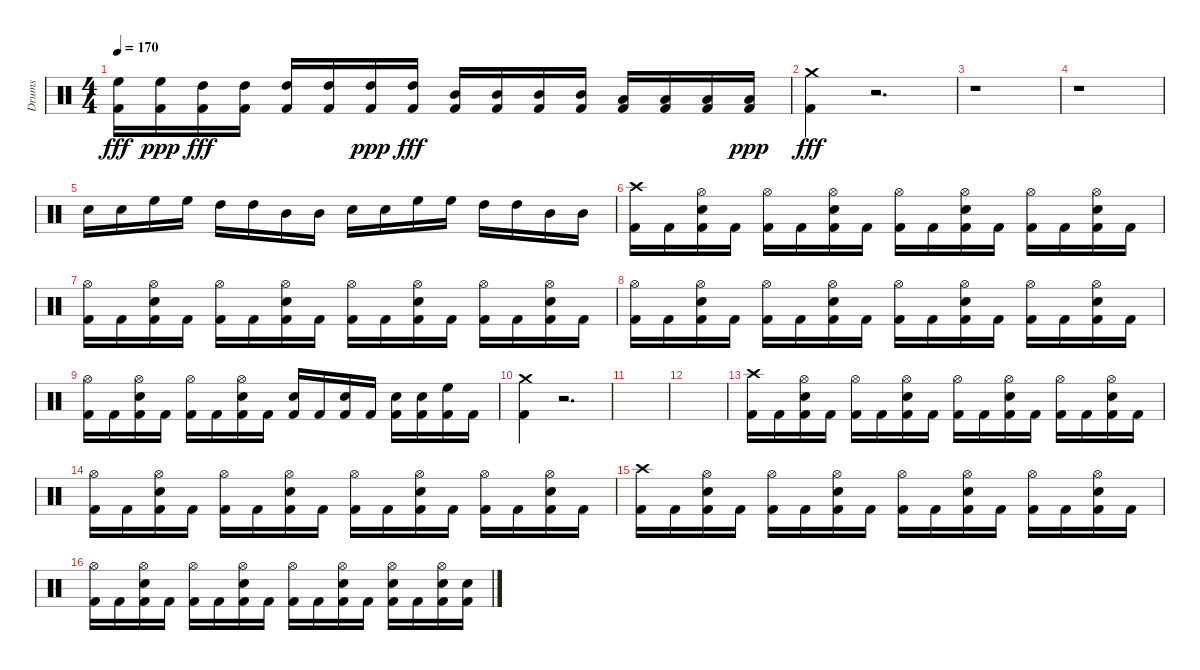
\track ("Drums" "Drums") {instrument percussion}
\staff {score}
\articulation defaults
\ts (4 4)
\tempo 170
\clef neutral
\ks c
("High Floor Tom (hit)" "Kick (hit) 2").16{dy fff} ("Kick (hit) 2" "High Floor Tom (hit)").16{dy ppp} ("High Tom (hit)" "Kick (hit) 2").16{dy fff} ("High Tom (hit)" "Kick (hit) 2").16 ("High Tom (hit)" "Kick (hit) 2").16 ("High Tom (hit)" "Kick (hit) 2").16 ("Kick (hit) 2" "High Tom (hit)").16{dy ppp} ("High Tom (hit)" "Kick (hit) 2").16{dy fff} ("Mid Tom (hit)" "Kick (hit) 2").16 ("Mid Tom (hit)" "Kick (hit) 2").16 ("Mid Tom (hit)" "Kick (hit) 2").16 ("Mid Tom (hit)" "Kick (hit) 2").16 ("Low Tom (hit)" "Kick (hit) 2").16 ("Low Tom (hit)" "Kick (hit) 2").16 ("Low Tom (hit)" "Kick (hit) 2").16 ("Kick (hit) 2" "Low Tom (hit)").16{dy ppp} |
("Kick (hit) 2" "Crash medium (hit)").4{dy fff} r.2{d} |
r.1 |
r.1 |
"Snare (hit) 2".16 "Snare (hit) 2".16 "High Floor Tom (hit)".16 "High Floor Tom (hit)".16 "High Tom (hit)".16 "High Tom (hit)".16 "Mid Tom (hit)".16 "Mid Tom (hit)".16 "Snare (hit) 2".16 "Snare (hit) 2".16 "High Floor Tom (hit)".16 "High Floor Tom (hit)".16 "High Tom (hit)".16 "High Tom (hit)".16 "Mid Tom (hit)".16 "Mid Tom (hit)".16 |
("Kick (hit) 2" "Crash high (hit)").16 "Kick (hit) 2".16 ("Kick (hit) 2" "Snare (hit) 2" "Hi-Hat (open)").16 "Kick (hit) 2".16 ("Kick (hit) 2" "Hi-Hat (open)").16 "Kick (hit) 2".16 ("Kick (hit) 2" "Snare (hit) 2" "Hi-Hat (open)").16 "Kick (hit) 2".16 ("Kick (hit) 2" "Hi-Hat (open)").16 "Kick (hit) 2".16 ("Kick (hit) 2" "Snare (hit) 2" "Hi-Hat (open)").16 "Kick (hit) 2".16 ("Kick (hit) 2" "Hi-Hat (open)").16 "Kick (hit) 2".16 ("Kick (hit) 2" "Snare (hit) 2" "Hi-Hat (open)").16 "Kick (hit) 2".16 |
("Hi-Hat (open)" "Kick (hit) 2").16 "Kick (hit) 2".16 ("Kick (hit) 2" "Snare (hit) 2" "Hi-Hat (open)").16 "Kick (hit) 2".16 ("Kick (hit) 2" "Hi-Hat (open)").16 "Kick (hit) 2".16 ("Kick (hit) 2" "Snare (hit) 2" "Hi-Hat (open)").16 "Kick (hit) 2".16 ("Kick (hit) 2" "Hi-Hat (open)").16 "Kick (hit) 2".16 ("Kick (hit) 2" "Snare (hit) 2" "Hi-Hat (open)").16 "Kick (hit) 2".16 ("Kick (hit) 2" "Hi-Hat (open)").16 "Kick (hit) 2".16 ("Kick (hit) 2" "Snare (hit) 2" "Hi-Hat (open)").16 "Kick (hit) 2".16 |
("Hi-Hat (open)" "Kick (hit) 2").16 "Kick (hit) 2".16 ("Kick (hit) 2" "Snare (hit) 2" "Hi-Hat (open)").16 "Kick (hit) 2".16 ("Kick (hit) 2" "Hi-Hat (open)").16 "Kick (hit) 2".16 ("Kick (hit) 2" "Snare (hit) 2" "Hi-Hat (open)").16 "Kick (hit) 2".16 ("Kick (hit) 2" "Hi-Hat (open)").16 "Kick (hit) 2".16 ("Kick (hit) 2" "Snare (hit) 2" "Hi-Hat (open)").16 "Kick (hit) 2".16 ("Kick (hit) 2" "Hi-Hat (open)").16 "Kick (hit) 2".16 ("Kick (hit) 2" "Snare (hit) 2" "Hi-Hat (open)").16 "Kick (hit) 2".16 |
("Hi-Hat (open)" "Kick (hit) 2").16 "Kick (hit) 2".16 ("Kick (hit) 2" "Snare (hit) 2" "Hi-Hat (open)").16 "Kick (hit) 2".16 ("Kick (hit) 2" "Hi-Hat (open)").16 "Kick (hit) 2".16 ("Kick (hit) 2" "Snare (hit) 2" "Hi-Hat (open)").16 "Kick (hit) 2".16 ("Snare (hit) 2" "Kick (hit) 2").16 "Kick (hit) 2".16 ("Snare (hit) 2" "Kick (hit) 2").16 "Kick (hit) 2".16 ("Snare (hit) 2" "Kick (hit) 2").16 ("Snare (hit) 2" "Kick (hit) 2").16 ("High Floor Tom (hit)" "Kick (hit) 2").16 "Kick (hit) 2".16 |
("Kick (hit) 2" "Crash medium (hit)").4 r.2{d} |
|
|
("Crash high (hit)" "Kick (hit) 2").16 "Kick (hit) 2".16 ("Snare (hit) 2" "Hi-Hat (open)" "Kick (hit) 2").16 "Kick (hit) 2".16 ("Hi-Hat (open)" "Kick (hit) 2").16 "Kick (hit) 2".16 ("Snare (hit) 2" "Hi-Hat (open)" "Kick (hit) 2").16 "Kick (hit) 2".16 ("Hi-Hat (open)" "Kick (hit) 2").16 "Kick (hit) 2".16 ("Snare (hit) 2" "Hi-Hat (open)" "Kick (hit) 2").16 "Kick (hit) 2".16 ("Hi-Hat (open)" "Kick (hit) 2").16 "Kick (hit) 2".16 ("Snare (hit) 2" "Hi-Hat (open)" "Kick (hit) 2").16 "Kick (hit) 2".16 |
("Hi-Hat (open)" "Kick (hit) 2").16 "Kick (hit) 2".16 ("Kick (hit) 2" "Snare (hit) 2" "Hi-Hat (open)").16 "Kick (hit) 2".16 ("Kick (hit) 2" "Hi-Hat (open)").16 "Kick (hit) 2".16 ("Kick (hit) 2" "Snare (hit) 2" "Hi-Hat (open)").16 "Kick (hit) 2".16 ("Kick (hit) 2" "Hi-Hat (open)").16 "Kick (hit) 2".16 ("Kick (hit) 2" "Snare (hit) 2" "Hi-Hat (open)").16 "Kick (hit) 2".16 ("Kick (hit) 2" "Hi-Hat (open)").16 "Kick (hit) 2".16 ("Kick (hit) 2" "Snare (hit) 2" "Hi-Hat (open)").16 "Kick (hit) 2".16 |
("Crash high (hit)" "Kick (hit) 2").16 "Kick (hit) 2".16 ("Snare (hit) 2" "Hi-Hat (open)" "Kick (hit) 2").16 "Kick (hit) 2".16 ("Hi-Hat (open)" "Kick (hit) 2").16 "Kick (hit) 2".16 ("Snare (hit) 2" "Hi-Hat (open)" "Kick (hit) 2").16 "Kick (hit) 2".16 ("Hi-Hat (open)" "Kick (hit) 2").16 "Kick (hit) 2".16 ("Snare (hit) 2" "Hi-Hat (open)" "Kick (hit) 2").16 "Kick (hit) 2".16 ("Hi-Hat (open)" "Kick (hit) 2").16 "Kick (hit) 2".16 ("Snare (hit) 2" "Hi-Hat (open)" "Kick (hit) 2").16 "Kick (hit) 2".16 |
("Hi-Hat (open)" "Kick (hit) 2").16 "Kick (hit) 2".16 ("Kick (hit) 2" "Snare (hit) 2" "Hi-Hat (open)").16 "Kick (hit) 2".16 ("Kick (hit) 2" "Hi-Hat (open)").16 "Kick (hit) 2".16 ("Kick (hit) 2" "Snare (hit) 2" "Hi-Hat (open)").16 "Kick (hit) 2".16 ("Kick (hit) 2" "Hi-Hat (open)").16 "Kick (hit) 2".16 ("Kick (hit) 2" "Snare (hit) 2" "Hi-Hat (open)").16 "Kick (hit) 2".16 ("Snare (hit) 2" "Kick (hit) 2" "Hi-Hat (open)").16 "Kick (hit) 2".16 ("Kick (hit) 2" "Snare (hit) 2" "Hi-Hat (open)").16 ("Snare (hit) 2" "Kick (hit) 2").16
